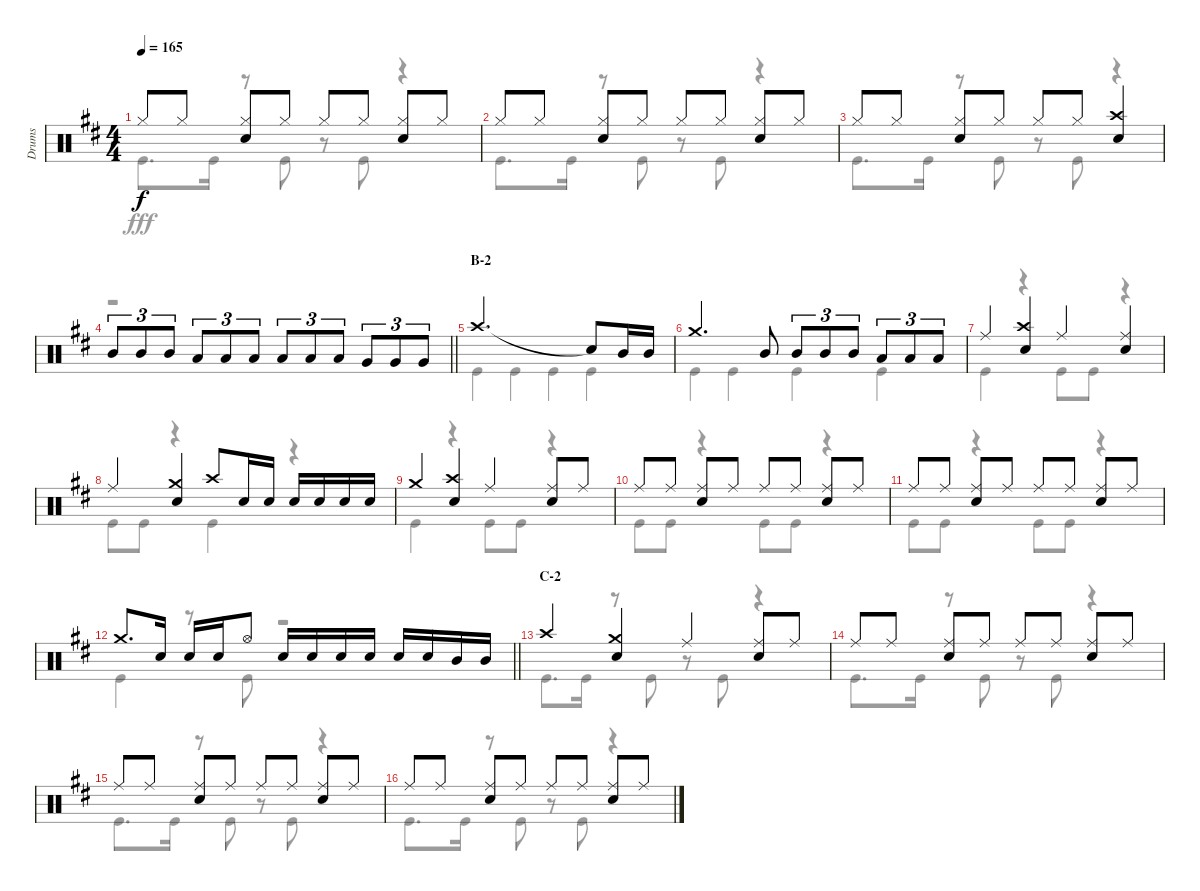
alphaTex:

\track ("Drums" "Drums") {instrument percussion}
\staff {score}
\articulation defaults
\voice
\ts (4 4)
\tempo 165
\clef neutral
\ks d "Hi-Hat (closed)".8{dy f} "Hi-Hat (closed)".8
("Hi-Hat (closed)" "Snare (hit) 2").8 "Hi-Hat (closed)".8 "Hi-Hat (closed)".8 "Hi-Hat (closed)".8 ("Hi-Hat (closed)" "Snare (hit) 2").8 "Hi-Hat (closed)".8 |
"Hi-Hat (closed)".8 "Hi-Hat (closed)".8 ("Hi-Hat (closed)" "Snare (hit) 2").8 "Hi-Hat (closed)".8 "Hi-Hat (closed)".8 "Hi-Hat (closed)".8 ("Hi-Hat (closed)" "Snare (hit) 2").8 "Hi-Hat (closed)".8 |
"Hi-Hat (closed)".8 "Hi-Hat (closed)".8 ("Hi-Hat (closed)" "Snare (hit) 2").8 "Hi-Hat (closed)".8 "Hi-Hat (closed)".8 "Hi-Hat (closed)".8 ("Crash high (hit)" "Snare (hit) 2").4 |
\barLineRight lightlight "Mid Tom (hit)".8{tu (3 2)} "Mid Tom (hit)".8{tu (3 2)} "Mid Tom (hit)".8{tu (3 2)} "Low Tom (hit)".8{tu (3 2)} "Low Tom (hit)".8{tu (3 2)} "Low Tom (hit)".8{tu (3 2)} "Low Tom (hit)".8{tu (3 2)} "Low Tom (hit)".8{tu (3 2)} "Low Tom (hit)".8{tu (3 2)} "Very Low Tom (hit)".8{tu (3 2)} "Very Low Tom (hit)".8{tu (3 2)} "Very Low Tom (hit)".8{tu (3 2)}
|
\section ("" "B-2")
"Crash high (hit)".2{d} "Snare (hit)"{t}.8 "Mid Tom (hit)".16 "Mid Tom (hit)".16 |
"Crash medium (hit)".4{d} "Mid Tom (hit)".8 "Mid Tom (hit)".8{tu (3 2)} "Mid Tom (hit)".8{tu (3 2)} "Mid Tom (hit)".8{tu (3 2)} "Low Tom (hit)".8{tu (3 2)} "Low Tom (hit)".8{tu (3 2)} "Low Tom (hit)".8{tu (3 2)} |
"Ride (middle)".4 ("Crash high (hit)" "Snare (hit) 2").4 "Ride (middle)".4 ("Ride (middle)" "Snare (hit) 2").4 |
"Ride (middle)".4 ("Crash medium (hit)" "Snare (hit) 2").4 "Crash high (hit)".8 "Snare (hit) 2".16 "Snare (hit) 2".16 "Snare (hit) 2".16 "Snare (hit) 2".16 "Snare (hit) 2".16 "Snare (hit) 2".16 |
"Crash medium (hit)".4 ("Crash high (hit)" "Snare (hit) 2").4 "Ride (middle)".4 ("Ride (middle)" "Snare (hit) 2").8 "Ride (middle)".8 |
"Ride (middle)".8 "Ride (middle)".8 ("Ride (middle)" "Snare (hit) 2").8 "Ride (middle)".8 "Ride (middle)".8 "Ride (middle)".8 ("Ride (middle)" "Snare (hit) 2").8 "Ride (middle)".8 |
"Ride (middle)".8 "Ride (middle)".8 ("Ride (middle)" "Snare (hit) 2").8 "Ride (middle)".8 "Ride (middle)".8 "Ride (middle)".8 ("Ride (middle)" "Snare (hit) 2").8 "Ride (middle)".8 |
\barLineRight lightlight "Crash medium (hit)".8{d} "Snare (hit) 2".16 "Snare (hit) 2".16 "Snare (hit) 2".16 "Hi-Hat (open)".8 "Snare (hit) 2".16 "Snare (hit) 2".16 "Snare (hit) 2".16 "Snare (hit) 2".16 "Snare (hit) 2".16 "Snare (hit) 2".16 "Mid Tom (hit)".16 "Mid Tom (hit)".16
|
\section ("" "C-2")
"Crash high (hit)".4 ("Crash medium (hit)" "Snare (hit) 2").4 "Ride (middle)".4 ("Ride (middle)" "Snare (hit) 2").8 "Ride (middle)".8 |
"Ride (middle)".8 "Ride (middle)".8 ("Ride (middle)" "Snare (hit) 2").8 "Ride (middle)".8 "Ride (middle)".8 "Ride (middle)".8 ("Ride (middle)" "Snare (hit) 2").8 "Ride (middle)".8 |
"Ride (middle)".8 "Ride (middle)".8 ("Ride (middle)" "Snare (hit) 2").8 "Ride (middle)".8 "Ride (middle)".8 "Ride (middle)".8 ("Ride (middle)" "Snare (hit) 2").8 "Ride (middle)".8 |
"Ride (middle)".8 "Ride (middle)".8 ("Ride (middle)" "Snare (hit) 2").8 "Ride (middle)".8 "Ride (middle)".8 "Ride (middle)".8 ("Ride (middle)" "Snare (hit) 2").8 "Ride (middle)".8
\voice
\clef neutral
\ottava regular
\simile none
\ks d "Kick (hit)".8{d dy fff} "Kick (hit)".16
r.8 "Kick (hit)".8 r.8 "Kick (hit)".8 r.4 |
"Kick (hit)".8{d} "Kick (hit)".16 r.8 "Kick (hit)".8 r.8 "Kick (hit)".8 r.4 |
"Kick (hit)".8{d} "Kick (hit)".16 r.8 "Kick (hit)".8 r.8 "Kick (hit)".8 r.4 |
\barLineRight lightlight
r.1 |
"Kick (hit)".4 "Kick (hit)".4 "Kick (hit)".4 "Kick (hit)".4 |
"Kick (hit)".4 "Kick (hit)".4 "Kick (hit)".4 "Kick (hit)".4 |
"Kick (hit)".4 r.4 "Kick (hit)".8 "Kick (hit)".8 r.4 |
"Kick (hit)".8 "Kick (hit)".8 r.4 "Kick (hit)".4 r.4 |
"Kick (hit)".4 r.4 "Kick (hit)".8 "Kick (hit)".8 r.4 |
"Kick (hit)".8 "Kick (hit)".8 r.4 "Kick (hit)".8 "Kick (hit)".8 r.4 |
"Kick (hit)".8 "Kick (hit)".8 r.4 "Kick (hit)".8 "Kick (hit)".8 r.4 |
\barLineRight lightlight "Kick (hit)".4
r.8 "Kick (hit)".8 r.2 |
"Kick (hit)".8{d} "Kick (hit)".16 r.8 "Kick (hit)".8 r.8 "Kick (hit)".8 r.4 |
"Kick (hit)".8{d} "Kick (hit)".16 r.8 "Kick (hit)".8 r.8 "Kick (hit)".8 r.4 |
"Kick (hit)".8{d} "Kick (hit)".16 r.8 "Kick (hit)".8 r.8 "Kick (hit)".8 r.4 |
"Kick (hit)".8{d} "Kick (hit)".16 r.8 "Kick (hit)".8 r.8 "Kick (hit)".8 r.4
